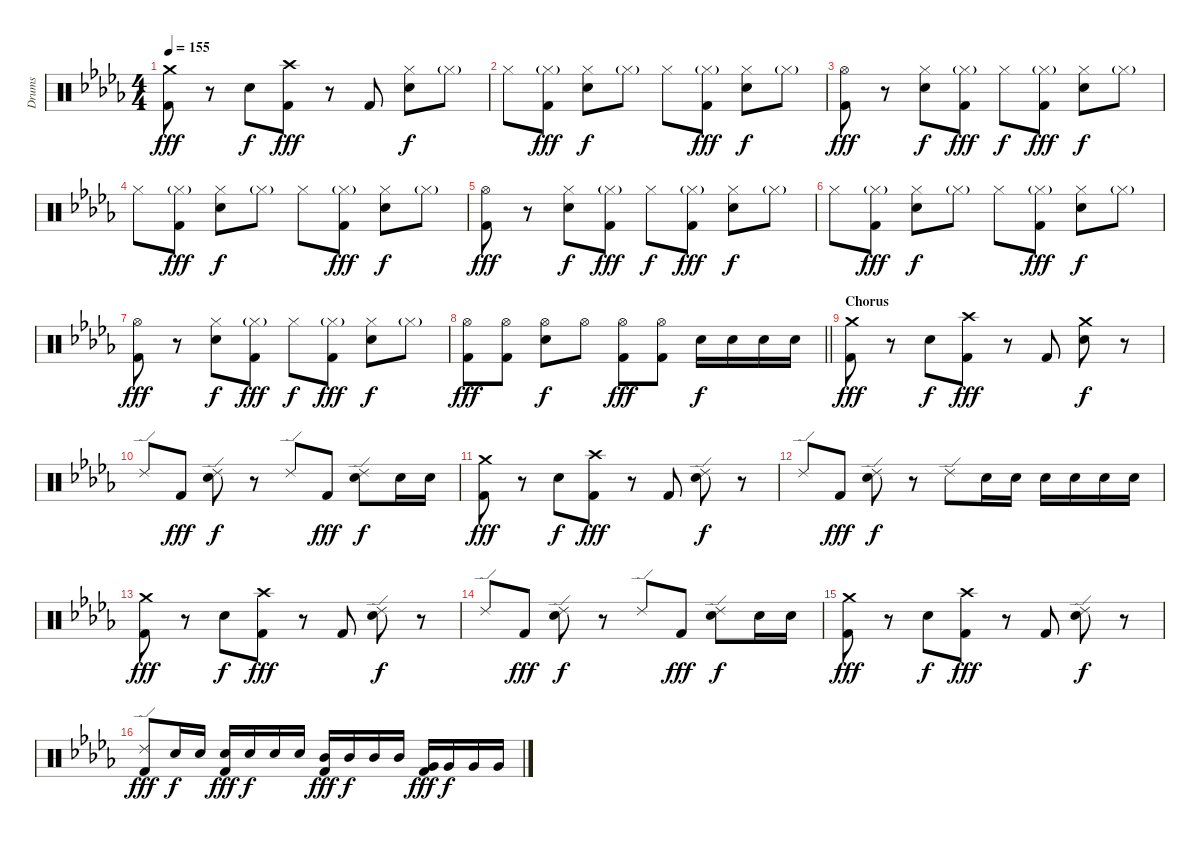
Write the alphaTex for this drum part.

\track ("Drums" "Drums") {instrument percussion}
\staff {score}
\articulation defaults
\ts (4 4)
\tempo 155
\clef neutral
\ks db
("Crash medium (hit)" "Kick (hit) 2").8{dy fff} r.8 "Electric Snare (hit)".8{dy f} ("Crash high (hit)" "Kick (hit) 2").8{dy fff} r.8 "Kick (hit) 2".8 ("Hi-Hat (closed)" "Electric Snare (hit)").8{dy f} "Hi-Hat (closed)"{g}.8 |
"Hi-Hat (closed)".8 ("Hi-Hat (closed)"{g} "Kick (hit) 2").8{dy fff} ("Hi-Hat (closed)" "Electric Snare (hit)").8{dy f} "Hi-Hat (closed)"{g}.8 "Hi-Hat (closed)".8 ("Hi-Hat (closed)"{g} "Kick (hit) 2").8{dy fff} ("Hi-Hat (closed)" "Electric Snare (hit)").8{dy f} "Hi-Hat (closed)"{g}.8 |
("Hi-Hat (open)" "Kick (hit) 2").8{dy fff} r.8 ("Hi-Hat (closed)" "Electric Snare (hit)").8{dy f} ("Hi-Hat (closed)"{g} "Kick (hit) 2").8{dy fff} "Hi-Hat (closed)".8{dy f} ("Hi-Hat (closed)"{g} "Kick (hit) 2").8{dy fff} ("Hi-Hat (closed)" "Electric Snare (hit)").8{dy f} "Hi-Hat (closed)"{g}.8 |
"Hi-Hat (closed)".8 ("Hi-Hat (closed)"{g} "Kick (hit) 2").8{dy fff} ("Hi-Hat (closed)" "Electric Snare (hit)").8{dy f} "Hi-Hat (closed)"{g}.8 "Hi-Hat (closed)".8 ("Hi-Hat (closed)"{g} "Kick (hit) 2").8{dy fff} ("Hi-Hat (closed)" "Electric Snare (hit)").8{dy f} "Hi-Hat (closed)"{g}.8 |
("Hi-Hat (open)" "Kick (hit) 2").8{dy fff} r.8 ("Hi-Hat (closed)" "Electric Snare (hit)").8{dy f} ("Hi-Hat (closed)"{g} "Kick (hit) 2").8{dy fff} "Hi-Hat (closed)".8{dy f} ("Hi-Hat (closed)"{g} "Kick (hit) 2").8{dy fff} ("Hi-Hat (closed)" "Electric Snare (hit)").8{dy f} "Hi-Hat (closed)"{g}.8 |
"Hi-Hat (closed)".8 ("Hi-Hat (closed)"{g} "Kick (hit) 2").8{dy fff} ("Hi-Hat (closed)" "Electric Snare (hit)").8{dy f} "Hi-Hat (closed)"{g}.8 "Hi-Hat (closed)".8 ("Hi-Hat (closed)"{g} "Kick (hit) 2").8{dy fff} ("Hi-Hat (closed)" "Electric Snare (hit)").8{dy f} "Hi-Hat (closed)"{g}.8 |
("Hi-Hat (open)" "Kick (hit) 2").8{dy fff} r.8 ("Hi-Hat (closed)" "Electric Snare (hit)").8{dy f} ("Hi-Hat (closed)"{g} "Kick (hit) 2").8{dy fff} "Hi-Hat (closed)".8{dy f} ("Hi-Hat (closed)"{g} "Kick (hit) 2").8{dy fff} ("Hi-Hat (closed)" "Electric Snare (hit)").8{dy f} "Hi-Hat (closed)"{g}.8 |
\barLineRight lightlight
("Hi-Hat (open)" "Kick (hit) 2").8{dy fff} ("Hi-Hat (open)" "Kick (hit) 2").8 ("Hi-Hat (open)" "Electric Snare (hit)").8{dy f} "Hi-Hat (open)".8 ("Hi-Hat (open)" "Kick (hit) 2").8{dy fff} ("Hi-Hat (open)" "Kick (hit) 2").8 "Electric Snare (hit)".16{dy f} "Electric Snare (hit)".16 "Electric Snare (hit)".16 "Electric Snare (hit)".16 |
\section ("" "Chorus")
("Crash medium (hit)" "Kick (hit) 2").8{dy fff} r.8 "Electric Snare (hit)".8{dy f} ("Crash high (hit)" "Kick (hit) 2").8{dy fff} r.8 "Kick (hit) 2".8 ("Crash medium (hit)" "Electric Snare (hit)").8{dy f} r.8 |
"Ride (edge) 2".8 "Kick (hit) 2".8{dy fff} ("Ride (edge) 2" "Electric Snare (hit)").8{dy f} r.8 "Ride (edge) 2".8 "Kick (hit) 2".8{dy fff} ("Ride (edge) 2" "Electric Snare (hit)").8{dy f} "Electric Snare (hit)".16 "Electric Snare (hit)".16 |
("Crash medium (hit)" "Kick (hit) 2").8{dy fff} r.8 "Electric Snare (hit)".8{dy f} ("Crash high (hit)" "Kick (hit) 2").8{dy fff} r.8 "Kick (hit) 2".8 ("Ride (edge) 2" "Electric Snare (hit)").8{dy f} r.8 |
"Ride (edge) 2".8 "Kick (hit) 2".8{dy fff} ("Ride (edge) 2" "Electric Snare (hit)").8{dy f} r.8 "Ride (edge) 2".8 "Electric Snare (hit)".16 "Electric Snare (hit)".16 "Electric Snare (hit)".16 "Electric Snare (hit)".16 "Electric Snare (hit)".16 "Electric Snare (hit)".16 |
("Crash medium (hit)" "Kick (hit) 2").8{dy fff} r.8 "Electric Snare (hit)".8{dy f} ("Crash high (hit)" "Kick (hit) 2").8{dy fff} r.8 "Kick (hit) 2".8 ("Ride (edge) 2" "Electric Snare (hit)").8{dy f} r.8 |
"Ride (edge) 2".8 "Kick (hit) 2".8{dy fff} ("Ride (edge) 2" "Electric Snare (hit)").8{dy f} r.8 "Ride (edge) 2".8 "Kick (hit) 2".8{dy fff} ("Ride (edge) 2" "Electric Snare (hit)").8{dy f} "Electric Snare (hit)".16 "Electric Snare (hit)".16 |
("Crash medium (hit)" "Kick (hit) 2").8{dy fff} r.8 "Electric Snare (hit)".8{dy f} ("Crash high (hit)" "Kick (hit) 2").8{dy fff} r.8 "Kick (hit) 2".8 ("Ride (edge) 2" "Electric Snare (hit)").8{dy f} r.8 |
("Ride (edge) 2" "Kick (hit) 2").8{dy fff} "Electric Snare (hit)".16{dy f} "Electric Snare (hit)".16 ("Electric Snare (hit)" "Kick (hit) 2").16{dy fff} "Electric Snare (hit)".16{dy f} "Electric Snare (hit)".16 "Electric Snare (hit)".16 ("Mid Tom (hit)" "Kick (hit) 2").16{dy fff} "Mid Tom (hit)".16{dy f} "Mid Tom (hit)".16 "Mid Tom (hit)".16 ("Very Low Tom (hit)" "Kick (hit) 2").16{dy fff} "Very Low Tom (hit)".16{dy f} "Very Low Tom (hit)".16 "Very Low Tom (hit)".16
